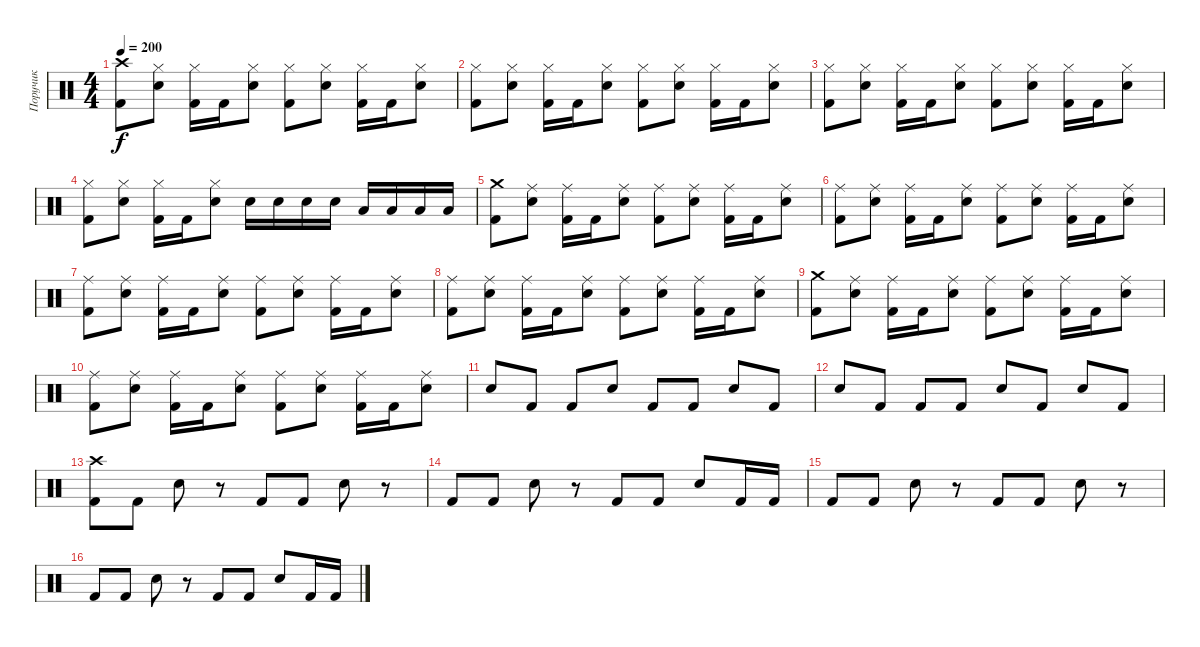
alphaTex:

\track ("Поручик" "Поручик") {instrument percussion}
\staff {score}
\articulation defaults
\ts (4 4)
\tempo 200
\clef neutral
\ks c
("Crash high (hit)" "Kick (hit) 2").8{dy f} ("Hi-Hat (closed)" "Electric Snare (hit)").8 ("Hi-Hat (closed)" "Kick (hit) 2").16 "Kick (hit) 2".16 ("Hi-Hat (closed)" "Electric Snare (hit)").8 ("Hi-Hat (closed)" "Kick (hit) 2").8 ("Hi-Hat (closed)" "Electric Snare (hit)").8 ("Hi-Hat (closed)" "Kick (hit) 2").16 "Kick (hit) 2".16 ("Hi-Hat (closed)" "Electric Snare (hit)").8 |
("Hi-Hat (closed)" "Kick (hit) 2").8 ("Hi-Hat (closed)" "Electric Snare (hit)").8 ("Hi-Hat (closed)" "Kick (hit) 2").16 "Kick (hit) 2".16 ("Hi-Hat (closed)" "Electric Snare (hit)").8 ("Hi-Hat (closed)" "Kick (hit) 2").8 ("Hi-Hat (closed)" "Electric Snare (hit)").8 ("Hi-Hat (closed)" "Kick (hit) 2").16 "Kick (hit) 2".16 ("Hi-Hat (closed)" "Electric Snare (hit)").8 |
("Hi-Hat (closed)" "Kick (hit) 2").8 ("Hi-Hat (closed)" "Electric Snare (hit)").8 ("Hi-Hat (closed)" "Kick (hit) 2").16 "Kick (hit) 2".16 ("Hi-Hat (closed)" "Electric Snare (hit)").8 ("Hi-Hat (closed)" "Kick (hit) 2").8 ("Hi-Hat (closed)" "Electric Snare (hit)").8 ("Hi-Hat (closed)" "Kick (hit) 2").16 "Kick (hit) 2".16 ("Hi-Hat (closed)" "Electric Snare (hit)").8 |
("Hi-Hat (closed)" "Kick (hit) 2").8 ("Hi-Hat (closed)" "Electric Snare (hit)").8 ("Hi-Hat (closed)" "Kick (hit) 2").16 "Kick (hit) 2".16 ("Hi-Hat (closed)" "Electric Snare (hit)").8 "Electric Snare (hit)".16 "Electric Snare (hit)".16 "Electric Snare (hit)".16 "Electric Snare (hit)".16 "Low Floor Tom (hit)".16 "Low Floor Tom (hit)".16 "Low Floor Tom (hit)".16 "Low Floor Tom (hit)".16 |
("Crash medium (hit)" "Kick (hit) 2").8 ("Ride (middle)" "Electric Snare (hit)").8 ("Ride (middle)" "Kick (hit) 2").16 "Kick (hit) 2".16 ("Ride (middle)" "Electric Snare (hit)").8 ("Ride (middle)" "Kick (hit) 2").8 ("Ride (middle)" "Electric Snare (hit)").8 ("Ride (middle)" "Kick (hit) 2").16 "Kick (hit) 2".16 ("Ride (middle)" "Electric Snare (hit)").8 |
("Ride (middle)" "Kick (hit) 2").8 ("Ride (middle)" "Electric Snare (hit)").8 ("Ride (middle)" "Kick (hit) 2").16 "Kick (hit) 2".16 ("Ride (middle)" "Electric Snare (hit)").8 ("Ride (middle)" "Kick (hit) 2").8 ("Ride (middle)" "Electric Snare (hit)").8 ("Ride (middle)" "Kick (hit) 2").16 "Kick (hit) 2".16 ("Ride (middle)" "Electric Snare (hit)").8 |
("Ride (middle)" "Kick (hit) 2").8 ("Ride (middle)" "Electric Snare (hit)").8 ("Ride (middle)" "Kick (hit) 2").16 "Kick (hit) 2".16 ("Ride (middle)" "Electric Snare (hit)").8 ("Ride (middle)" "Kick (hit) 2").8 ("Ride (middle)" "Electric Snare (hit)").8 ("Ride (middle)" "Kick (hit) 2").16 "Kick (hit) 2".16 ("Ride (middle)" "Electric Snare (hit)").8 |
("Ride (middle)" "Kick (hit) 2").8 ("Ride (middle)" "Electric Snare (hit)").8 ("Ride (middle)" "Kick (hit) 2").16 "Kick (hit) 2".16 ("Ride (middle)" "Electric Snare (hit)").8 ("Ride (middle)" "Kick (hit) 2").8 ("Ride (middle)" "Electric Snare (hit)").8 ("Ride (middle)" "Kick (hit) 2").16 "Kick (hit) 2".16 ("Ride (middle)" "Electric Snare (hit)").8 |
("Crash medium (hit)" "Kick (hit) 2").8 ("Ride (middle)" "Electric Snare (hit)").8 ("Ride (middle)" "Kick (hit) 2").16 "Kick (hit) 2".16 ("Ride (middle)" "Electric Snare (hit)").8 ("Ride (middle)" "Kick (hit) 2").8 ("Ride (middle)" "Electric Snare (hit)").8 ("Ride (middle)" "Kick (hit) 2").16 "Kick (hit) 2".16 ("Ride (middle)" "Electric Snare (hit)").8 |
("Ride (middle)" "Kick (hit) 2").8 ("Ride (middle)" "Electric Snare (hit)").8 ("Ride (middle)" "Kick (hit) 2").16 "Kick (hit) 2".16 ("Ride (middle)" "Electric Snare (hit)").8 ("Ride (middle)" "Kick (hit) 2").8 ("Ride (middle)" "Electric Snare (hit)").8 ("Ride (middle)" "Kick (hit) 2").16 "Kick (hit) 2".16 ("Ride (middle)" "Electric Snare (hit)").8 |
"Electric Snare (hit)".8 "Kick (hit) 2".8 "Kick (hit) 2".8 "Electric Snare (hit)".8 "Kick (hit) 2".8 "Kick (hit) 2".8 "Electric Snare (hit)".8 "Kick (hit) 2".8 |
"Electric Snare (hit)".8 "Kick (hit) 2".8 "Kick (hit) 2".8 "Kick (hit) 2".8 "Electric Snare (hit)".8 "Kick (hit) 2".8 "Electric Snare (hit)".8 "Kick (hit) 2".8 |
("Crash high (hit)" "Kick (hit) 2").8 "Kick (hit) 2".8 "Electric Snare (hit)".8 r.8 "Kick (hit) 2".8 "Kick (hit) 2".8 "Electric Snare (hit)".8 r.8 |
"Kick (hit) 2".8 "Kick (hit) 2".8 "Electric Snare (hit)".8 r.8 "Kick (hit) 2".8 "Kick (hit) 2".8 "Electric Snare (hit)".8 "Kick (hit) 2".16 "Kick (hit) 2".16 |
"Kick (hit) 2".8 "Kick (hit) 2".8 "Electric Snare (hit)".8 r.8 "Kick (hit) 2".8 "Kick (hit) 2".8 "Electric Snare (hit)".8 r.8 |
"Kick (hit) 2".8 "Kick (hit) 2".8 "Electric Snare (hit)".8 r.8 "Kick (hit) 2".8 "Kick (hit) 2".8 "Electric Snare (hit)".8 "Kick (hit) 2".16 "Kick (hit) 2".16
